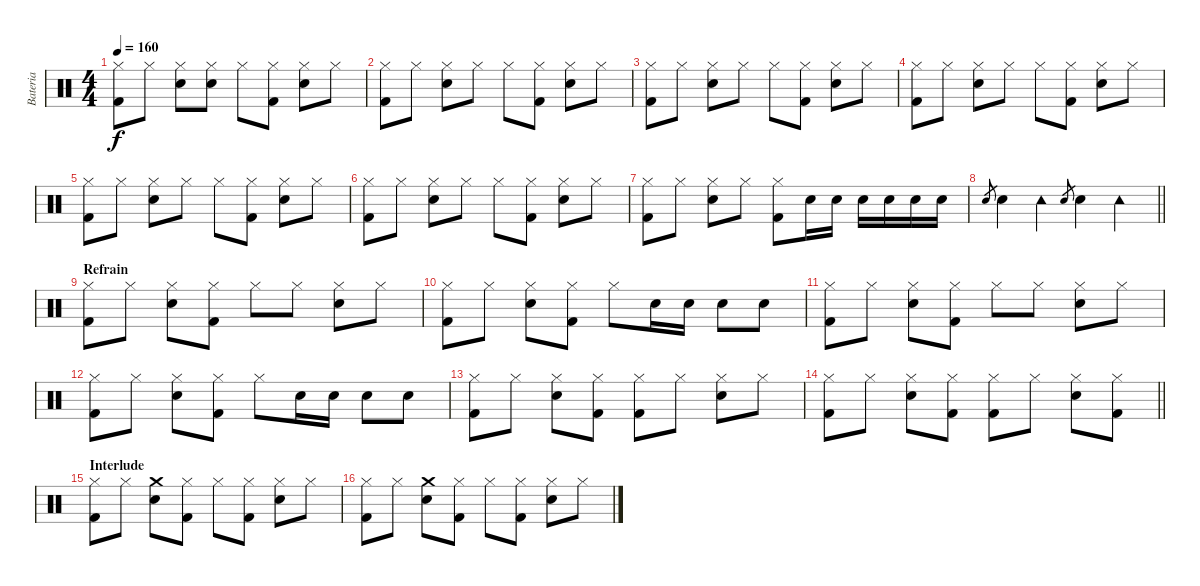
\track ("Bateria" "Bateria") {instrument percussion}
\staff {score}
\articulation defaults
\ts (4 4)
\tempo 160
\clef neutral
\ks c
("Hi-Hat (closed)" "Kick (hit) 2").8{dy f} "Hi-Hat (closed)".8 ("Hi-Hat (closed)" "Electric Snare (hit)").8 ("Hi-Hat (closed)" "Electric Snare (hit)").8 "Hi-Hat (closed)".8 ("Hi-Hat (closed)" "Kick (hit) 2").8 ("Hi-Hat (closed)" "Electric Snare (hit)").8 "Hi-Hat (closed)".8 |
("Hi-Hat (closed)" "Kick (hit) 2").8 "Hi-Hat (closed)".8 ("Hi-Hat (closed)" "Electric Snare (hit)").8 "Hi-Hat (closed)".8 "Hi-Hat (closed)".8 ("Hi-Hat (closed)" "Kick (hit) 2").8 ("Hi-Hat (closed)" "Electric Snare (hit)").8 "Hi-Hat (closed)".8 |
("Hi-Hat (closed)" "Kick (hit) 2").8 "Hi-Hat (closed)".8 ("Hi-Hat (closed)" "Electric Snare (hit)").8 "Hi-Hat (closed)".8 "Hi-Hat (closed)".8 ("Hi-Hat (closed)" "Kick (hit) 2").8 ("Hi-Hat (closed)" "Electric Snare (hit)").8 "Hi-Hat (closed)".8 |
("Hi-Hat (closed)" "Kick (hit) 2").8 "Hi-Hat (closed)".8 ("Hi-Hat (closed)" "Electric Snare (hit)").8 "Hi-Hat (closed)".8 "Hi-Hat (closed)".8 ("Hi-Hat (closed)" "Kick (hit) 2").8 ("Hi-Hat (closed)" "Electric Snare (hit)").8 "Hi-Hat (closed)".8 |
("Hi-Hat (closed)" "Kick (hit) 2").8 "Hi-Hat (closed)".8 ("Hi-Hat (closed)" "Electric Snare (hit)").8 "Hi-Hat (closed)".8 "Hi-Hat (closed)".8 ("Hi-Hat (closed)" "Kick (hit) 2").8 ("Hi-Hat (closed)" "Electric Snare (hit)").8 "Hi-Hat (closed)".8 |
("Hi-Hat (closed)" "Kick (hit) 2").8 "Hi-Hat (closed)".8 ("Hi-Hat (closed)" "Electric Snare (hit)").8 "Hi-Hat (closed)".8 "Hi-Hat (closed)".8 ("Hi-Hat (closed)" "Kick (hit) 2").8 ("Hi-Hat (closed)" "Electric Snare (hit)").8 "Hi-Hat (closed)".8 |
("Hi-Hat (closed)" "Kick (hit) 2").8 "Hi-Hat (closed)".8 ("Hi-Hat (closed)" "Electric Snare (hit)").8 "Hi-Hat (closed)".8 ("Hi-Hat (closed)" "Kick (hit) 2").8 "Electric Snare (hit)".16 "Electric Snare (hit)".16 "Electric Snare (hit)".16 "Electric Snare (hit)".16 "Electric Snare (hit)".16 "Electric Snare (hit)".16 |
\barLineRight lightlight "Electric Snare (hit)".8{gr} "Electric Snare (hit)".4 "Tambourine (hit)".4 "Electric Snare (hit)".8{gr} "Electric Snare (hit)".4 "Tambourine (hit)".4
|
\section ("" "Refrain")
("Hi-Hat (closed)" "Kick (hit) 2").8 "Hi-Hat (closed)".8 ("Hi-Hat (closed)" "Electric Snare (hit)").8 ("Hi-Hat (closed)" "Kick (hit) 2").8 "Hi-Hat (closed)".8 "Hi-Hat (closed)".8 ("Hi-Hat (closed)" "Electric Snare (hit)").8 "Hi-Hat (closed)".8 |
("Hi-Hat (closed)" "Kick (hit) 2").8 "Hi-Hat (closed)".8 ("Hi-Hat (closed)" "Electric Snare (hit)").8 ("Hi-Hat (closed)" "Kick (hit) 2").8 "Hi-Hat (closed)".8 "Electric Snare (hit)".16 "Electric Snare (hit)".16 "Electric Snare (hit)".8 "Electric Snare (hit)".8 |
("Hi-Hat (closed)" "Kick (hit) 2").8 "Hi-Hat (closed)".8 ("Hi-Hat (closed)" "Electric Snare (hit)").8 ("Hi-Hat (closed)" "Kick (hit) 2").8 "Hi-Hat (closed)".8 "Hi-Hat (closed)".8 ("Hi-Hat (closed)" "Electric Snare (hit)").8 "Hi-Hat (closed)".8 |
("Hi-Hat (closed)" "Kick (hit) 2").8 "Hi-Hat (closed)".8 ("Hi-Hat (closed)" "Electric Snare (hit)").8 ("Hi-Hat (closed)" "Kick (hit) 2").8 "Hi-Hat (closed)".8 "Electric Snare (hit)".16 "Electric Snare (hit)".16 "Electric Snare (hit)".8 "Electric Snare (hit)".8 |
("Hi-Hat (closed)" "Kick (hit) 2").8 "Hi-Hat (closed)".8 ("Hi-Hat (closed)" "Electric Snare (hit)").8 ("Hi-Hat (closed)" "Kick (hit) 2").8 ("Hi-Hat (closed)" "Kick (hit) 2").8 "Hi-Hat (closed)".8 ("Hi-Hat (closed)" "Electric Snare (hit)").8 "Hi-Hat (closed)".8 |
\barLineRight lightlight
("Hi-Hat (closed)" "Kick (hit) 2").8 "Hi-Hat (closed)".8 ("Hi-Hat (closed)" "Electric Snare (hit)").8 ("Hi-Hat (closed)" "Kick (hit) 2").8 ("Hi-Hat (closed)" "Kick (hit) 2").8 "Hi-Hat (closed)".8 ("Hi-Hat (closed)" "Electric Snare (hit)").8 ("Hi-Hat (closed)" "Kick (hit) 2").8 |
\section ("" "Interlude")
("Hi-Hat (closed)" "Kick (hit) 2").8 "Hi-Hat (closed)".8 ("Crash medium (hit)" "Electric Snare (hit)").8 ("Hi-Hat (closed)" "Kick (hit) 2").8 "Hi-Hat (closed)".8 ("Hi-Hat (closed)" "Kick (hit) 2").8 ("Hi-Hat (closed)" "Electric Snare (hit)").8 "Hi-Hat (closed)".8 |
("Hi-Hat (closed)" "Kick (hit) 2").8 "Hi-Hat (closed)".8 ("Crash medium (hit)" "Electric Snare (hit)").8 ("Hi-Hat (closed)" "Kick (hit) 2").8 "Hi-Hat (closed)".8 ("Hi-Hat (closed)" "Kick (hit) 2").8 ("Hi-Hat (closed)" "Electric Snare (hit)").8 "Hi-Hat (closed)".8
